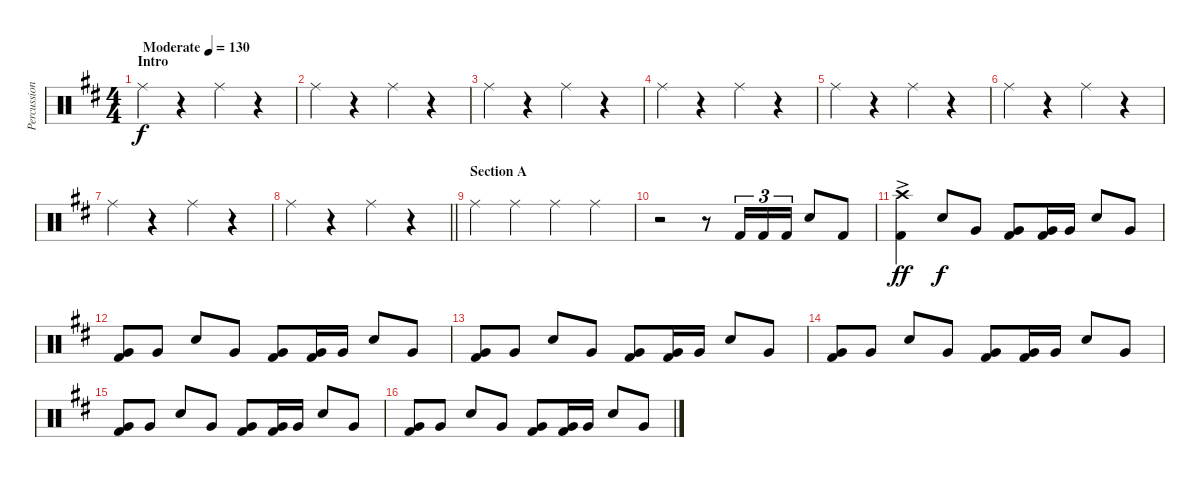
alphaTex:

\track ("Percussion" "Percussion") {instrument percussion}
\staff {score}
\articulation defaults
\ts (4 4)
\section ("" "Intro ")
\tempo (130 "Moderate")
\clef neutral
\ks d "Ride (middle)".4{dy f}
r.4 "Ride (middle)".4 r.4 |
"Ride (middle)".4 r.4 "Ride (middle)".4 r.4 |
"Ride (middle)".4 r.4 "Ride (middle)".4 r.4 |
"Ride (middle)".4 r.4 "Ride (middle)".4 r.4 |
"Ride (middle)".4 r.4 "Ride (middle)".4 r.4 |
"Ride (middle)".4 r.4 "Ride (middle)".4 r.4 |
"Ride (middle)".4 r.4 "Ride (middle)".4 r.4 |
\barLineRight lightlight "Ride (middle)".4
r.4 "Ride (middle)".4 r.4 |
\section ("" "Section A")
"Ride (middle)".4 "Ride (middle)".4 "Ride (middle)".4 "Ride (middle)".4 |
r.2 r.8 "Kick (hit) 2".16{tu (3 2)} "Kick (hit) 2".16{tu (3 2)} "Kick (hit) 2".16{tu (3 2)} "Snare (hit) 2".8 "Kick (hit) 2".8 |
("Crash high (hit)"{ac} "Kick (hit) 2").4{dy ff} "Snare (hit) 2".8{dy f} "Very Low Tom (hit)".8 ("Very Low Tom (hit)" "Kick (hit) 2").8 ("Very Low Tom (hit)" "Kick (hit) 2").16 "Very Low Tom (hit)".16 "Snare (hit) 2".8 "Very Low Tom (hit)".8 |
("Very Low Tom (hit)" "Kick (hit) 2").8 "Very Low Tom (hit)".8 "Snare (hit) 2".8 "Very Low Tom (hit)".8 ("Very Low Tom (hit)" "Kick (hit) 2").8 ("Very Low Tom (hit)" "Kick (hit) 2").16 "Very Low Tom (hit)".16 "Snare (hit) 2".8 "Very Low Tom (hit)".8 |
("Very Low Tom (hit)" "Kick (hit) 2").8 "Very Low Tom (hit)".8 "Snare (hit) 2".8 "Very Low Tom (hit)".8 ("Very Low Tom (hit)" "Kick (hit) 2").8 ("Very Low Tom (hit)" "Kick (hit) 2").16 "Very Low Tom (hit)".16 "Snare (hit) 2".8 "Very Low Tom (hit)".8 |
("Very Low Tom (hit)" "Kick (hit) 2").8 "Very Low Tom (hit)".8 "Snare (hit) 2".8 "Very Low Tom (hit)".8 ("Very Low Tom (hit)" "Kick (hit) 2").8 ("Very Low Tom (hit)" "Kick (hit) 2").16 "Very Low Tom (hit)".16 "Snare (hit) 2".8 "Very Low Tom (hit)".8 |
("Very Low Tom (hit)" "Kick (hit) 2").8 "Very Low Tom (hit)".8 "Snare (hit) 2".8 "Very Low Tom (hit)".8 ("Very Low Tom (hit)" "Kick (hit) 2").8 ("Very Low Tom (hit)" "Kick (hit) 2").16 "Very Low Tom (hit)".16 "Snare (hit) 2".8 "Very Low Tom (hit)".8 |
("Very Low Tom (hit)" "Kick (hit) 2").8 "Very Low Tom (hit)".8 "Snare (hit) 2".8 "Very Low Tom (hit)".8 ("Very Low Tom (hit)" "Kick (hit) 2").8 ("Very Low Tom (hit)" "Kick (hit) 2").16 "Very Low Tom (hit)".16 "Snare (hit) 2".8 "Very Low Tom (hit)".8
